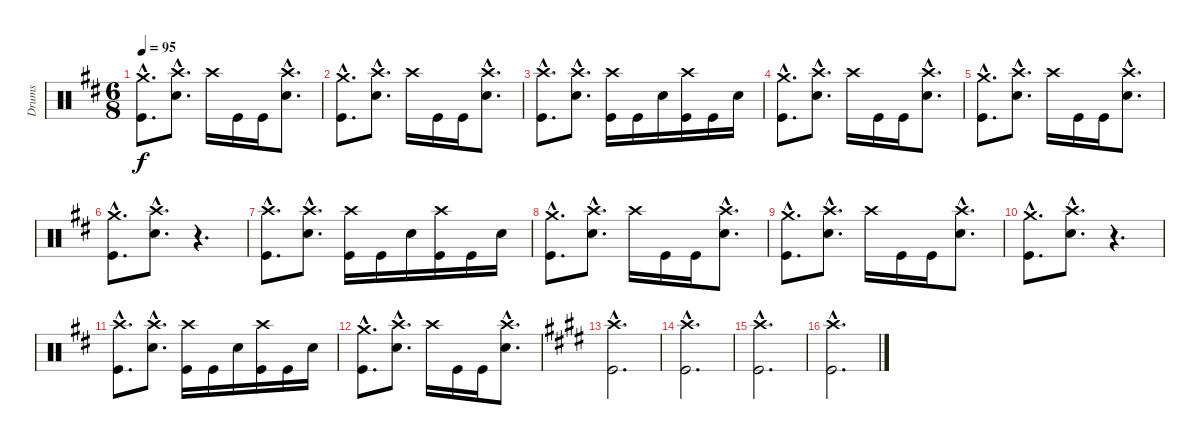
\track ("Drums" "Drums") {instrument percussion}
\staff {score}
\articulation defaults
\ts (6 8)
\tempo 95
\clef neutral
\ks bminor
("Crash medium (hit)"{hac} "Kick (hit)"{hac}).8{d dy f} ("Crash high (hit)"{hac} "Electric Snare (hit)"{hac}).8{d} "Crash high (hit)".16 "Kick (hit)".16 "Kick (hit)".16 ("Crash high (hit)"{hac} "Electric Snare (hit)"{hac}).8{d} |
("Crash medium (hit)"{hac} "Kick (hit)"{hac}).8{d} ("Crash high (hit)"{hac} "Electric Snare (hit)"{hac}).8{d} "Crash high (hit)".16 "Kick (hit)".16 "Kick (hit)".16 ("Crash high (hit)"{hac} "Electric Snare (hit)"{hac}).8{d} |
("Crash high (hit)"{hac} "Kick (hit)"{hac}).8{d} ("Crash high (hit)"{hac} "Electric Snare (hit)"{hac}).8{d} ("Crash high (hit)" "Kick (hit)").16 "Kick (hit)".16 "Electric Snare (hit)".16 ("Crash high (hit)" "Kick (hit)").16 "Kick (hit)".16 "Electric Snare (hit)".16 |
("Crash medium (hit)"{hac} "Kick (hit)"{hac}).8{d} ("Crash high (hit)"{hac} "Electric Snare (hit)"{hac}).8{d} "Crash high (hit)".16 "Kick (hit)".16 "Kick (hit)".16 ("Crash high (hit)"{hac} "Electric Snare (hit)"{hac}).8{d} |
("Crash medium (hit)"{hac} "Kick (hit)"{hac}).8{d} ("Crash high (hit)"{hac} "Electric Snare (hit)"{hac}).8{d} "Crash high (hit)".16 "Kick (hit)".16 "Kick (hit)".16 ("Crash high (hit)"{hac} "Electric Snare (hit)"{hac}).8{d} |
("Crash medium (hit)"{hac} "Kick (hit)"{hac}).8{d} ("Crash high (hit)"{hac} "Electric Snare (hit)"{hac}).8{d} r.4{d} |
("Crash high (hit)"{hac} "Kick (hit)"{hac}).8{d} ("Crash high (hit)"{hac} "Electric Snare (hit)"{hac}).8{d} ("Crash high (hit)" "Kick (hit)").16 "Kick (hit)".16 "Electric Snare (hit)".16 ("Crash high (hit)" "Kick (hit)").16 "Kick (hit)".16 "Electric Snare (hit)".16 |
("Crash medium (hit)"{hac} "Kick (hit)"{hac}).8{d} ("Crash high (hit)"{hac} "Electric Snare (hit)"{hac}).8{d} "Crash high (hit)".16 "Kick (hit)".16 "Kick (hit)".16 ("Crash high (hit)"{hac} "Electric Snare (hit)"{hac}).8{d} |
("Crash medium (hit)"{hac} "Kick (hit)"{hac}).8{d} ("Crash high (hit)"{hac} "Electric Snare (hit)"{hac}).8{d} "Crash high (hit)".16 "Kick (hit)".16 "Kick (hit)".16 ("Crash high (hit)"{hac} "Electric Snare (hit)"{hac}).8{d} |
("Crash medium (hit)"{hac} "Kick (hit)"{hac}).8{d} ("Crash high (hit)"{hac} "Electric Snare (hit)"{hac}).8{d} r.4{d} |
("Crash high (hit)"{hac} "Kick (hit)"{hac}).8{d} ("Crash high (hit)"{hac} "Electric Snare (hit)"{hac}).8{d} ("Crash high (hit)" "Kick (hit)").16 "Kick (hit)".16 "Electric Snare (hit)".16 ("Crash high (hit)" "Kick (hit)").16 "Kick (hit)".16 "Electric Snare (hit)".16 |
("Crash medium (hit)"{hac} "Kick (hit)"{hac}).8{d} ("Crash high (hit)"{hac} "Electric Snare (hit)"{hac}).8{d} "Crash high (hit)".16 "Kick (hit)".16 "Kick (hit)".16 ("Crash high (hit)"{hac} "Electric Snare (hit)"{hac}).8{d} |
\ks e
("Crash high (hit)"{hac} "Kick (hit)"{hac}).2{d} |
("Crash high (hit)"{hac} "Kick (hit)"{hac}).2{d} |
("Crash high (hit)"{hac} "Kick (hit)"{hac}).2{d} |
("Crash high (hit)"{hac} "Kick (hit)"{hac}).2{d}
